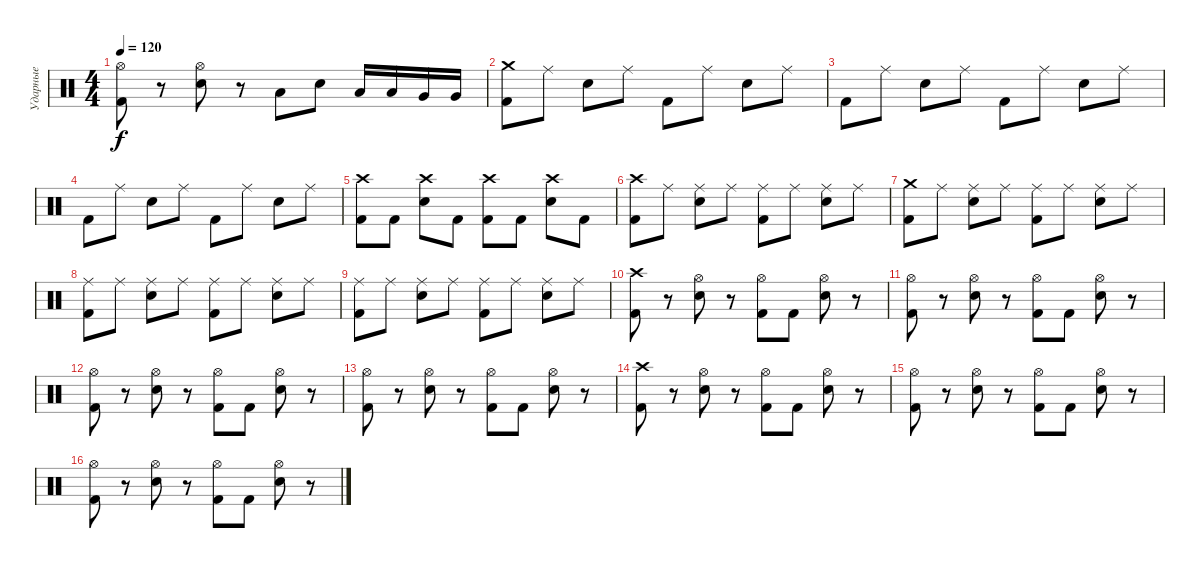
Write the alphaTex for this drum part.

\track ("Ударные" "Ударные") {instrument percussion}
\staff {score}
\articulation defaults
\ts (4 4)
\tempo 120
\clef neutral
\ks c
("Hi-Hat (open)" "Kick (hit) 2").8{dy f} r.8 ("Hi-Hat (open)" "Electric Snare (hit)").8 r.8 "Low Tom (hit)".8 "Electric Snare (hit)".8 "Low Floor Tom (hit)".16 "Low Floor Tom (hit)".16 "Very Low Tom (hit)".16 "Very Low Tom (hit)".16 |
("Crash medium (hit)" "Kick (hit) 2").8 "Ride (middle)".8 "Electric Snare (hit)".8 "Ride (middle)".8 "Kick (hit) 2".8 "Ride (middle)".8 "Electric Snare (hit)".8 "Ride (middle)".8 |
"Kick (hit) 2".8 "Ride (middle)".8 "Electric Snare (hit)".8 "Ride (middle)".8 "Kick (hit) 2".8 "Ride (middle)".8 "Electric Snare (hit)".8 "Ride (middle)".8 |
"Kick (hit) 2".8 "Ride (middle)".8 "Electric Snare (hit)".8 "Ride (middle)".8 "Kick (hit) 2".8 "Ride (middle)".8 "Electric Snare (hit)".8 "Ride (middle)".8 |
("Crash high (hit)" "Kick (hit) 2").8 "Kick (hit) 2".8 ("Crash high (hit)" "Electric Snare (hit)").8 "Kick (hit) 2".8 ("Crash high (hit)" "Kick (hit) 2").8 "Kick (hit) 2".8 ("Crash high (hit)" "Electric Snare (hit)").8 "Kick (hit) 2".8 |
("Crash high (hit)" "Kick (hit) 2").8 "Ride (middle)".8 ("Ride (middle)" "Electric Snare (hit)").8 "Ride (middle)".8 ("Ride (middle)" "Kick (hit) 2").8 "Ride (middle)".8 ("Ride (middle)" "Electric Snare (hit)").8 "Ride (middle)".8 |
("Crash medium (hit)" "Kick (hit) 2").8 "Ride (middle)".8 ("Ride (middle)" "Electric Snare (hit)").8 "Ride (middle)".8 ("Ride (middle)" "Kick (hit) 2").8 "Ride (middle)".8 ("Ride (middle)" "Electric Snare (hit)").8 "Ride (middle)".8 |
("Ride (middle)" "Kick (hit) 2").8 "Ride (middle)".8 ("Ride (middle)" "Electric Snare (hit)").8 "Ride (middle)".8 ("Ride (middle)" "Kick (hit) 2").8 "Ride (middle)".8 ("Ride (middle)" "Electric Snare (hit)").8 "Ride (middle)".8 |
("Ride (middle)" "Kick (hit) 2").8 "Ride (middle)".8 ("Ride (middle)" "Electric Snare (hit)").8 "Ride (middle)".8 ("Ride (middle)" "Kick (hit) 2").8 "Ride (middle)".8 ("Ride (middle)" "Electric Snare (hit)").8 "Ride (middle)".8 |
("Crash high (hit)" "Kick (hit) 2").8 r.8 ("Hi-Hat (open)" "Electric Snare (hit)").8 r.8 ("Hi-Hat (open)" "Kick (hit) 2").8 "Kick (hit) 2".8 ("Hi-Hat (open)" "Electric Snare (hit)").8 r.8 |
("Hi-Hat (open)" "Kick (hit) 2").8 r.8 ("Hi-Hat (open)" "Electric Snare (hit)").8 r.8 ("Hi-Hat (open)" "Kick (hit) 2").8 "Kick (hit) 2".8 ("Hi-Hat (open)" "Electric Snare (hit)").8 r.8 |
("Hi-Hat (open)" "Kick (hit) 2").8 r.8 ("Hi-Hat (open)" "Electric Snare (hit)").8 r.8 ("Hi-Hat (open)" "Kick (hit) 2").8 "Kick (hit) 2".8 ("Hi-Hat (open)" "Electric Snare (hit)").8 r.8 |
("Hi-Hat (open)" "Kick (hit) 2").8 r.8 ("Hi-Hat (open)" "Electric Snare (hit)").8 r.8 ("Hi-Hat (open)" "Kick (hit) 2").8 "Kick (hit) 2".8 ("Hi-Hat (open)" "Electric Snare (hit)").8 r.8 |
("Crash high (hit)" "Kick (hit) 2").8 r.8 ("Hi-Hat (open)" "Electric Snare (hit)").8 r.8 ("Hi-Hat (open)" "Kick (hit) 2").8 "Kick (hit) 2".8 ("Hi-Hat (open)" "Electric Snare (hit)").8 r.8 |
("Hi-Hat (open)" "Kick (hit) 2").8 r.8 ("Hi-Hat (open)" "Electric Snare (hit)").8 r.8 ("Hi-Hat (open)" "Kick (hit) 2").8 "Kick (hit) 2".8 ("Hi-Hat (open)" "Electric Snare (hit)").8 r.8 |
("Hi-Hat (open)" "Kick (hit) 2").8 r.8 ("Hi-Hat (open)" "Electric Snare (hit)").8 r.8 ("Hi-Hat (open)" "Kick (hit) 2").8 "Kick (hit) 2".8 ("Hi-Hat (open)" "Electric Snare (hit)").8 r.8
